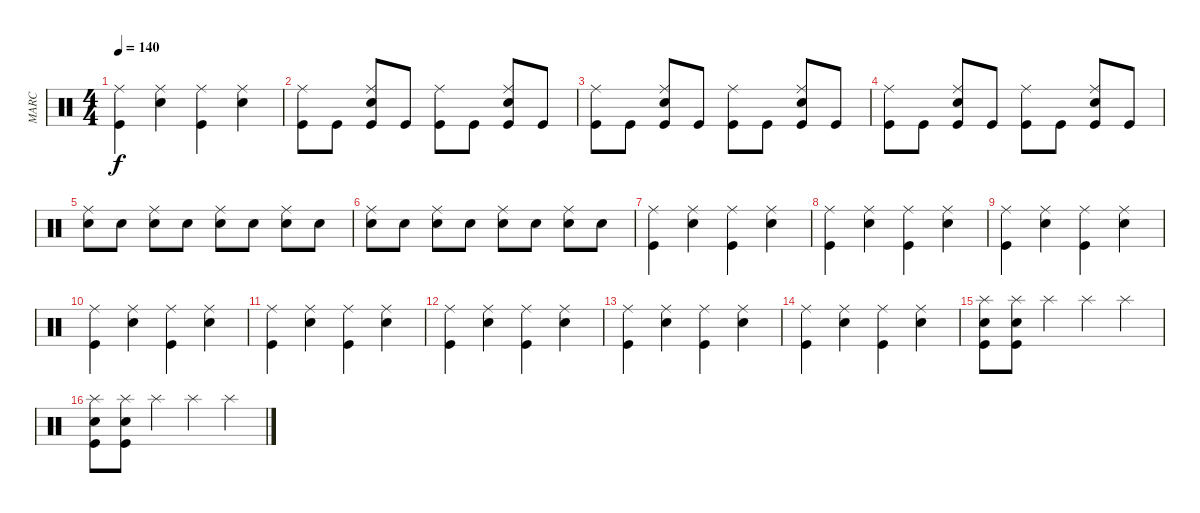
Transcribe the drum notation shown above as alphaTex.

\track ("MARC" "MARC") {instrument percussion}
\staff {score}
\articulation defaults
\ts (4 4)
\tempo 140
\clef neutral
\ks c
("Kick (hit)" "Ride (middle)").4{dy f} ("Snare (hit) 2" "Ride (middle)").4 ("Kick (hit)" "Ride (middle)").4 ("Snare (hit) 2" "Ride (middle)").4 |
("Kick (hit)" "Ride (middle)").8 "Kick (hit)".8 ("Kick (hit)" "Snare (hit) 2" "Ride (middle)").8 "Kick (hit)".8 ("Kick (hit)" "Ride (middle)").8 "Kick (hit)".8 ("Kick (hit)" "Snare (hit) 2" "Ride (middle)").8 "Kick (hit)".8 |
("Kick (hit)" "Ride (middle)").8 "Kick (hit)".8 ("Kick (hit)" "Snare (hit) 2" "Ride (middle)").8 "Kick (hit)".8 ("Kick (hit)" "Ride (middle)").8 "Kick (hit)".8 ("Kick (hit)" "Snare (hit) 2" "Ride (middle)").8 "Kick (hit)".8 |
("Kick (hit)" "Ride (middle)").8 "Kick (hit)".8 ("Kick (hit)" "Snare (hit) 2" "Ride (middle)").8 "Kick (hit)".8 ("Kick (hit)" "Ride (middle)").8 "Kick (hit)".8 ("Kick (hit)" "Snare (hit) 2" "Ride (middle)").8 "Kick (hit)".8 |
("Snare (hit) 2" "Ride (middle)").8 "Snare (hit) 2".8 ("Snare (hit) 2" "Ride (middle)").8 "Snare (hit) 2".8 ("Snare (hit) 2" "Ride (middle)").8 "Snare (hit) 2".8 ("Snare (hit) 2" "Ride (middle)").8 "Snare (hit) 2".8 |
("Snare (hit) 2" "Ride (middle)").8 "Snare (hit) 2".8 ("Snare (hit) 2" "Ride (middle)").8 "Snare (hit) 2".8 ("Snare (hit) 2" "Ride (middle)").8 "Snare (hit) 2".8 ("Snare (hit) 2" "Ride (middle)").8 "Snare (hit) 2".8 |
("Kick (hit)" "Ride (middle)").4 ("Snare (hit) 2" "Ride (middle)").4 ("Kick (hit)" "Ride (middle)").4 ("Snare (hit) 2" "Ride (middle)").4 |
("Kick (hit)" "Ride (middle)").4 ("Snare (hit) 2" "Ride (middle)").4 ("Kick (hit)" "Ride (middle)").4 ("Snare (hit) 2" "Ride (middle)").4 |
("Kick (hit)" "Ride (middle)").4 ("Snare (hit) 2" "Ride (middle)").4 ("Kick (hit)" "Ride (middle)").4 ("Snare (hit) 2" "Ride (middle)").4 |
("Kick (hit)" "Ride (middle)").4 ("Snare (hit) 2" "Ride (middle)").4 ("Kick (hit)" "Ride (middle)").4 ("Snare (hit) 2" "Ride (middle)").4 |
("Kick (hit)" "Ride (middle)").4 ("Snare (hit) 2" "Ride (middle)").4 ("Kick (hit)" "Ride (middle)").4 ("Snare (hit) 2" "Ride (middle)").4 |
("Kick (hit)" "Ride (middle)").4 ("Snare (hit) 2" "Ride (middle)").4 ("Kick (hit)" "Ride (middle)").4 ("Snare (hit) 2" "Ride (middle)").4 |
("Kick (hit)" "Ride (middle)").4 ("Snare (hit) 2" "Ride (middle)").4 ("Kick (hit)" "Ride (middle)").4 ("Snare (hit) 2" "Ride (middle)").4 |
("Kick (hit)" "Ride (middle)").4 ("Snare (hit) 2" "Ride (middle)").4 ("Kick (hit)" "Ride (middle)").4 ("Snare (hit) 2" "Ride (middle)").4 |
("Snare (hit) 2" "Kick (hit)" "Splash (hit)").8 ("Snare (hit) 2" "Kick (hit)" "Splash (hit)").8 "Splash (hit)".4 "Splash (hit)".4 "Splash (hit)".4 |
("Snare (hit) 2" "Kick (hit)" "Splash (hit)").8 ("Snare (hit) 2" "Kick (hit)" "Splash (hit)").8 "Splash (hit)".4 "Splash (hit)".4 "Splash (hit)".4
